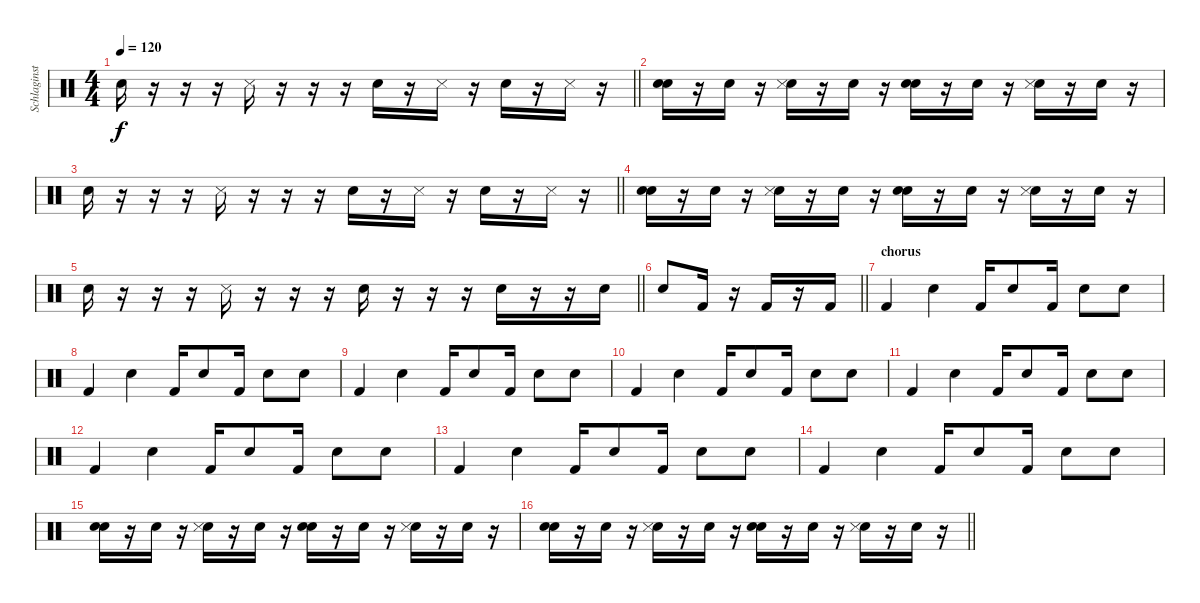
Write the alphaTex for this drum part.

\track ("Schlaginstrumente - Auswahl" "Schlaginst") {instrument percussion}
\staff {score}
\articulation defaults
\ts (4 4)
\tempo 120
\clef neutral
\barLineRight lightlight
\ks c "Snare (hit) 2".16{dy f}
r.16 r.16 r.16 "Snare (side stick) 3".16 r.16 r.16 r.16 "Snare (hit) 2".16 r.16 "Snare (side stick) 3".16 r.16 "Snare (hit) 2".16 r.16 "Snare (side stick) 3".16 r.16 |
("Snare (hit) 2" "Snare (hit) 2").16 r.16 "Snare (hit) 2".16 r.16 ("Snare (hit) 2" "Snare (side stick) 3").16 r.16 "Snare (hit) 2".16 r.16 ("Snare (hit) 2" "Snare (hit) 2").16 r.16 "Snare (hit) 2".16 r.16 ("Snare (hit) 2" "Snare (side stick) 3").16 r.16 "Snare (hit) 2".16 r.16 |
\barLineRight lightlight "Snare (hit) 2".16
r.16 r.16 r.16 "Snare (side stick) 3".16 r.16 r.16 r.16 "Snare (hit) 2".16 r.16 "Snare (side stick) 3".16 r.16 "Snare (hit) 2".16 r.16 "Snare (side stick) 3".16 r.16 |
("Snare (hit) 2" "Snare (hit) 2").16 r.16 "Snare (hit) 2".16 r.16 ("Snare (hit) 2" "Snare (side stick) 3").16 r.16 "Snare (hit) 2".16 r.16 ("Snare (hit) 2" "Snare (hit) 2").16 r.16 "Snare (hit) 2".16 r.16 ("Snare (hit) 2" "Snare (side stick) 3").16 r.16 "Snare (hit) 2".16 r.16 |
\barLineRight lightlight "Snare (hit) 2".16
r.16 r.16 r.16 "Snare (side stick) 3".16 r.16 r.16 r.16 "Snare (hit) 2".16 r.16 r.16 r.16 "Snare (hit) 2".16 r.16 r.16 "Snare (hit) 2".16 |
\barLineRight lightlight "Snare (hit) 2".8 "Kick (hit) 2".16
r.16 "Kick (hit) 2".16 r.16 "Kick (hit) 2".16 |
\section ("" "chorus")
"Kick (hit) 2".4 "Snare (hit) 2".4 "Kick (hit) 2".16 "Snare (hit) 2".8 "Kick (hit) 2".16 "Snare (hit) 2".8 "Snare (hit) 2".8 |
"Kick (hit) 2".4 "Snare (hit) 2".4 "Kick (hit) 2".16 "Snare (hit) 2".8 "Kick (hit) 2".16 "Snare (hit) 2".8 "Snare (hit) 2".8 |
"Kick (hit) 2".4 "Snare (hit) 2".4 "Kick (hit) 2".16 "Snare (hit) 2".8 "Kick (hit) 2".16 "Snare (hit) 2".8 "Snare (hit) 2".8 |
"Kick (hit) 2".4 "Snare (hit) 2".4 "Kick (hit) 2".16 "Snare (hit) 2".8 "Kick (hit) 2".16 "Snare (hit) 2".8 "Snare (hit) 2".8 |
"Kick (hit) 2".4 "Snare (hit) 2".4 "Kick (hit) 2".16 "Snare (hit) 2".8 "Kick (hit) 2".16 "Snare (hit) 2".8 "Snare (hit) 2".8 |
"Kick (hit) 2".4 "Snare (hit) 2".4 "Kick (hit) 2".16 "Snare (hit) 2".8 "Kick (hit) 2".16 "Snare (hit) 2".8 "Snare (hit) 2".8 |
"Kick (hit) 2".4 "Snare (hit) 2".4 "Kick (hit) 2".16 "Snare (hit) 2".8 "Kick (hit) 2".16 "Snare (hit) 2".8 "Snare (hit) 2".8 |
"Kick (hit) 2".4 "Snare (hit) 2".4 "Kick (hit) 2".16 "Snare (hit) 2".8 "Kick (hit) 2".16 "Snare (hit) 2".8 "Snare (hit) 2".8 |
("Snare (hit) 2" "Snare (hit) 2").16 r.16 "Snare (hit) 2".16 r.16 ("Snare (hit) 2" "Snare (side stick) 3").16 r.16 "Snare (hit) 2".16 r.16 ("Snare (hit) 2" "Snare (hit) 2").16 r.16 "Snare (hit) 2".16 r.16 ("Snare (hit) 2" "Snare (side stick) 3").16 r.16 "Snare (hit) 2".16 r.16 |
\barLineRight lightlight
("Snare (hit) 2" "Snare (hit) 2").16 r.16 "Snare (hit) 2".16 r.16 ("Snare (hit) 2" "Snare (side stick) 3").16 r.16 "Snare (hit) 2".16 r.16 ("Snare (hit) 2" "Snare (hit) 2").16 r.16 "Snare (hit) 2".16 r.16 ("Snare (hit) 2" "Snare (side stick) 3").16 r.16 "Snare (hit) 2".16 r.16
